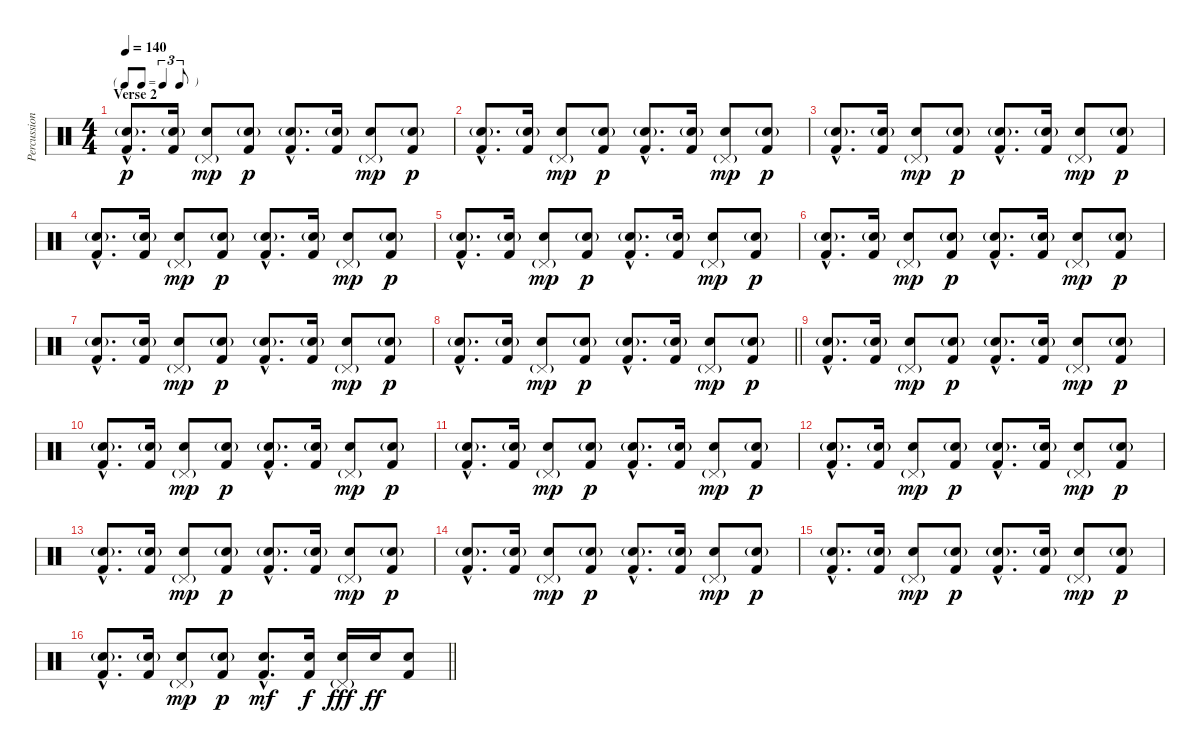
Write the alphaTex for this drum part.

\track ("Percussion" "Percussion") {instrument percussion}
\staff {score}
\articulation defaults
\ts (4 4)
\tf triplet8th
\section ("" "Verse 2")
\tempo 140
\clef neutral
\ks c
("Snare (hit) 2"{g hac} "Kick (hit) 2"{hac}).8{d dy p} ("Snare (hit) 2"{g} "Kick (hit) 2").16 ("Pedal Hi-Hat (hit)"{g} "Snare (hit) 2").8{dy mp} ("Snare (hit) 2"{g} "Kick (hit) 2").8{dy p} ("Snare (hit) 2"{g hac} "Kick (hit) 2"{hac}).8{d} ("Snare (hit) 2"{g} "Kick (hit) 2").16 ("Pedal Hi-Hat (hit)"{g} "Snare (hit) 2").8{dy mp} ("Snare (hit) 2"{g} "Kick (hit) 2").8{dy p} |
("Snare (hit) 2"{g hac} "Kick (hit) 2"{hac}).8{d} ("Snare (hit) 2"{g} "Kick (hit) 2").16 ("Pedal Hi-Hat (hit)"{g} "Snare (hit) 2").8{dy mp} ("Snare (hit) 2"{g} "Kick (hit) 2").8{dy p} ("Snare (hit) 2"{g hac} "Kick (hit) 2"{hac}).8{d} ("Snare (hit) 2"{g} "Kick (hit) 2").16 ("Pedal Hi-Hat (hit)"{g} "Snare (hit) 2").8{dy mp} ("Snare (hit) 2"{g} "Kick (hit) 2").8{dy p} |
("Snare (hit) 2"{g hac} "Kick (hit) 2"{hac}).8{d} ("Snare (hit) 2"{g} "Kick (hit) 2").16 ("Pedal Hi-Hat (hit)"{g} "Snare (hit) 2").8{dy mp} ("Snare (hit) 2"{g} "Kick (hit) 2").8{dy p} ("Snare (hit) 2"{g hac} "Kick (hit) 2"{hac}).8{d} ("Snare (hit) 2"{g} "Kick (hit) 2").16 ("Pedal Hi-Hat (hit)"{g} "Snare (hit) 2").8{dy mp} ("Snare (hit) 2"{g} "Kick (hit) 2").8{dy p} |
("Snare (hit) 2"{g hac} "Kick (hit) 2"{hac}).8{d} ("Snare (hit) 2"{g} "Kick (hit) 2").16 ("Pedal Hi-Hat (hit)"{g} "Snare (hit) 2").8{dy mp} ("Snare (hit) 2"{g} "Kick (hit) 2").8{dy p} ("Snare (hit) 2"{g hac} "Kick (hit) 2"{hac}).8{d} ("Snare (hit) 2"{g} "Kick (hit) 2").16 ("Pedal Hi-Hat (hit)"{g} "Snare (hit) 2").8{dy mp} ("Snare (hit) 2"{g} "Kick (hit) 2").8{dy p} |
("Snare (hit) 2"{g hac} "Kick (hit) 2"{hac}).8{d} ("Snare (hit) 2"{g} "Kick (hit) 2").16 ("Pedal Hi-Hat (hit)"{g} "Snare (hit) 2").8{dy mp} ("Snare (hit) 2"{g} "Kick (hit) 2").8{dy p} ("Snare (hit) 2"{g hac} "Kick (hit) 2"{hac}).8{d} ("Snare (hit) 2"{g} "Kick (hit) 2").16 ("Pedal Hi-Hat (hit)"{g} "Snare (hit) 2").8{dy mp} ("Snare (hit) 2"{g} "Kick (hit) 2").8{dy p} |
("Snare (hit) 2"{g hac} "Kick (hit) 2"{hac}).8{d} ("Snare (hit) 2"{g} "Kick (hit) 2").16 ("Pedal Hi-Hat (hit)"{g} "Snare (hit) 2").8{dy mp} ("Snare (hit) 2"{g} "Kick (hit) 2").8{dy p} ("Snare (hit) 2"{g hac} "Kick (hit) 2"{hac}).8{d} ("Snare (hit) 2"{g} "Kick (hit) 2").16 ("Pedal Hi-Hat (hit)"{g} "Snare (hit) 2").8{dy mp} ("Snare (hit) 2"{g} "Kick (hit) 2").8{dy p} |
("Snare (hit) 2"{g hac} "Kick (hit) 2"{hac}).8{d} ("Snare (hit) 2"{g} "Kick (hit) 2").16 ("Pedal Hi-Hat (hit)"{g} "Snare (hit) 2").8{dy mp} ("Snare (hit) 2"{g} "Kick (hit) 2").8{dy p} ("Snare (hit) 2"{g hac} "Kick (hit) 2"{hac}).8{d} ("Snare (hit) 2"{g} "Kick (hit) 2").16 ("Pedal Hi-Hat (hit)"{g} "Snare (hit) 2").8{dy mp} ("Snare (hit) 2"{g} "Kick (hit) 2").8{dy p} |
\barLineRight lightlight
("Snare (hit) 2"{g hac} "Kick (hit) 2"{hac}).8{d} ("Snare (hit) 2"{g} "Kick (hit) 2").16 ("Pedal Hi-Hat (hit)"{g} "Snare (hit) 2").8{dy mp} ("Snare (hit) 2"{g} "Kick (hit) 2").8{dy p} ("Snare (hit) 2"{g hac} "Kick (hit) 2"{hac}).8{d} ("Snare (hit) 2"{g} "Kick (hit) 2").16 ("Pedal Hi-Hat (hit)"{g} "Snare (hit) 2").8{dy mp} ("Snare (hit) 2"{g} "Kick (hit) 2").8{dy p} |
("Snare (hit) 2"{g hac} "Kick (hit) 2"{hac}).8{d} ("Snare (hit) 2"{g} "Kick (hit) 2").16 ("Pedal Hi-Hat (hit)"{g} "Snare (hit) 2").8{dy mp} ("Snare (hit) 2"{g} "Kick (hit) 2").8{dy p} ("Snare (hit) 2"{g hac} "Kick (hit) 2"{hac}).8{d} ("Snare (hit) 2"{g} "Kick (hit) 2").16 ("Pedal Hi-Hat (hit)"{g} "Snare (hit) 2").8{dy mp} ("Snare (hit) 2"{g} "Kick (hit) 2").8{dy p} |
("Snare (hit) 2"{g hac} "Kick (hit) 2"{hac}).8{d} ("Snare (hit) 2"{g} "Kick (hit) 2").16 ("Pedal Hi-Hat (hit)"{g} "Snare (hit) 2").8{dy mp} ("Snare (hit) 2"{g} "Kick (hit) 2").8{dy p} ("Snare (hit) 2"{g hac} "Kick (hit) 2"{hac}).8{d} ("Snare (hit) 2"{g} "Kick (hit) 2").16 ("Pedal Hi-Hat (hit)"{g} "Snare (hit) 2").8{dy mp} ("Snare (hit) 2"{g} "Kick (hit) 2").8{dy p} |
("Snare (hit) 2"{g hac} "Kick (hit) 2"{hac}).8{d} ("Snare (hit) 2"{g} "Kick (hit) 2").16 ("Pedal Hi-Hat (hit)"{g} "Snare (hit) 2").8{dy mp} ("Snare (hit) 2"{g} "Kick (hit) 2").8{dy p} ("Snare (hit) 2"{g hac} "Kick (hit) 2"{hac}).8{d} ("Snare (hit) 2"{g} "Kick (hit) 2").16 ("Pedal Hi-Hat (hit)"{g} "Snare (hit) 2").8{dy mp} ("Snare (hit) 2"{g} "Kick (hit) 2").8{dy p} |
("Snare (hit) 2"{g hac} "Kick (hit) 2"{hac}).8{d} ("Snare (hit) 2"{g} "Kick (hit) 2").16 ("Pedal Hi-Hat (hit)"{g} "Snare (hit) 2").8{dy mp} ("Snare (hit) 2"{g} "Kick (hit) 2").8{dy p} ("Snare (hit) 2"{g hac} "Kick (hit) 2"{hac}).8{d} ("Snare (hit) 2"{g} "Kick (hit) 2").16 ("Pedal Hi-Hat (hit)"{g} "Snare (hit) 2").8{dy mp} ("Snare (hit) 2"{g} "Kick (hit) 2").8{dy p} |
("Snare (hit) 2"{g hac} "Kick (hit) 2"{hac}).8{d} ("Snare (hit) 2"{g} "Kick (hit) 2").16 ("Pedal Hi-Hat (hit)"{g} "Snare (hit) 2").8{dy mp} ("Snare (hit) 2"{g} "Kick (hit) 2").8{dy p} ("Snare (hit) 2"{g hac} "Kick (hit) 2"{hac}).8{d} ("Snare (hit) 2"{g} "Kick (hit) 2").16 ("Pedal Hi-Hat (hit)"{g} "Snare (hit) 2").8{dy mp} ("Snare (hit) 2"{g} "Kick (hit) 2").8{dy p} |
("Snare (hit) 2"{g hac} "Kick (hit) 2"{hac}).8{d} ("Snare (hit) 2"{g} "Kick (hit) 2").16 ("Pedal Hi-Hat (hit)"{g} "Snare (hit) 2").8{dy mp} ("Snare (hit) 2"{g} "Kick (hit) 2").8{dy p} ("Snare (hit) 2"{g hac} "Kick (hit) 2"{hac}).8{d} ("Snare (hit) 2"{g} "Kick (hit) 2").16 ("Pedal Hi-Hat (hit)"{g} "Snare (hit) 2").8{dy mp} ("Snare (hit) 2"{g} "Kick (hit) 2").8{dy p} |
("Snare (hit) 2"{g hac} "Kick (hit) 2"{hac}).8{d} ("Snare (hit) 2"{g} "Kick (hit) 2").16 ("Pedal Hi-Hat (hit)"{g} "Snare (hit) 2").8{dy mp} ("Snare (hit) 2"{g} "Kick (hit) 2").8{dy p} ("Snare (hit) 2"{g hac} "Kick (hit) 2"{hac}).8{d} ("Snare (hit) 2"{g} "Kick (hit) 2").16 ("Pedal Hi-Hat (hit)"{g} "Snare (hit) 2").8{dy mp} ("Snare (hit) 2"{g} "Kick (hit) 2").8{dy p} |
\barLineRight lightlight
("Snare (hit) 2"{g hac} "Kick (hit) 2"{hac}).8{d} ("Snare (hit) 2"{g} "Kick (hit) 2").16 ("Pedal Hi-Hat (hit)"{g} "Snare (hit) 2").8{dy mp} ("Snare (hit) 2"{g} "Kick (hit) 2").8{dy p} ("Snare (hit) 2"{hac} "Kick (hit) 2"{hac}).8{d dy mf} ("Snare (hit) 2" "Kick (hit) 2").16{dy f} ("Pedal Hi-Hat (hit)"{g} "Snare (hit) 2").16{dy fff} "Snare (hit) 2".16{dy ff} ("Snare (hit) 2" "Kick (hit) 2").8
